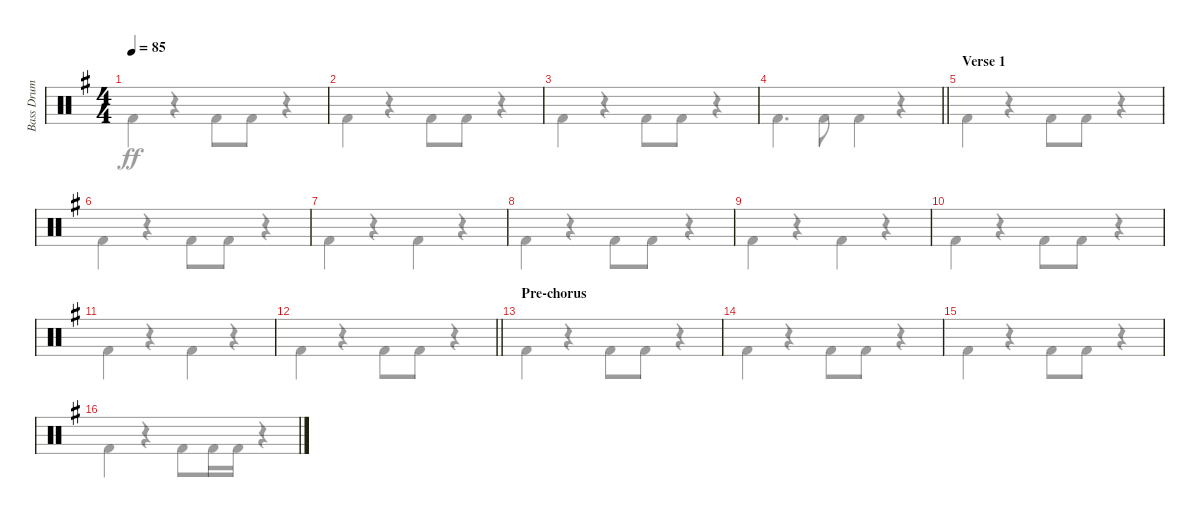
\track ("Bass Drum" "Bass Drum") {instrument percussion}
\staff {score}
\articulation defaults
\voice
\ts (4 4)
\tempo 85
\clef neutral
\ks g
|
|
|
\barLineRight lightlight
|
\section ("" "Verse 1")
|
|
|
|
|
|
|
\barLineRight lightlight
|
\section ("" "Pre-chorus")
|
|
|
\voice
\clef neutral
\ks g "Kick (hit) 2".4{dy ff}
r.4 "Kick (hit) 2".8 "Kick (hit) 2".8 r.4 |
"Kick (hit) 2".4 r.4 "Kick (hit) 2".8 "Kick (hit) 2".8 r.4 |
"Kick (hit) 2".4 r.4 "Kick (hit) 2".8 "Kick (hit) 2".8 r.4 |
\barLineRight lightlight "Kick (hit) 2".4{d} "Kick (hit) 2".8 "Kick (hit) 2".4
r.4 |
"Kick (hit) 2".4 r.4 "Kick (hit) 2".8 "Kick (hit) 2".8 r.4 |
"Kick (hit) 2".4 r.4 "Kick (hit) 2".8 "Kick (hit) 2".8 r.4 |
"Kick (hit) 2".4 r.4 "Kick (hit) 2".4 r.4 |
"Kick (hit) 2".4 r.4 "Kick (hit) 2".8 "Kick (hit) 2".8 r.4 |
"Kick (hit) 2".4 r.4 "Kick (hit) 2".4 r.4 |
"Kick (hit) 2".4 r.4 "Kick (hit) 2".8 "Kick (hit) 2".8 r.4 |
"Kick (hit) 2".4 r.4 "Kick (hit) 2".4 r.4 |
\barLineRight lightlight "Kick (hit) 2".4
r.4 "Kick (hit) 2".8 "Kick (hit) 2".8 r.4 |
"Kick (hit) 2".4 r.4 "Kick (hit) 2".8 "Kick (hit) 2".8 r.4 |
"Kick (hit) 2".4 r.4 "Kick (hit) 2".8 "Kick (hit) 2".8 r.4 |
"Kick (hit) 2".4 r.4 "Kick (hit) 2".8 "Kick (hit) 2".8 r.4 |
"Kick (hit) 2".4 r.4 "Kick (hit) 2".8 "Kick (hit) 2".16 "Kick (hit) 2".16 r.4
